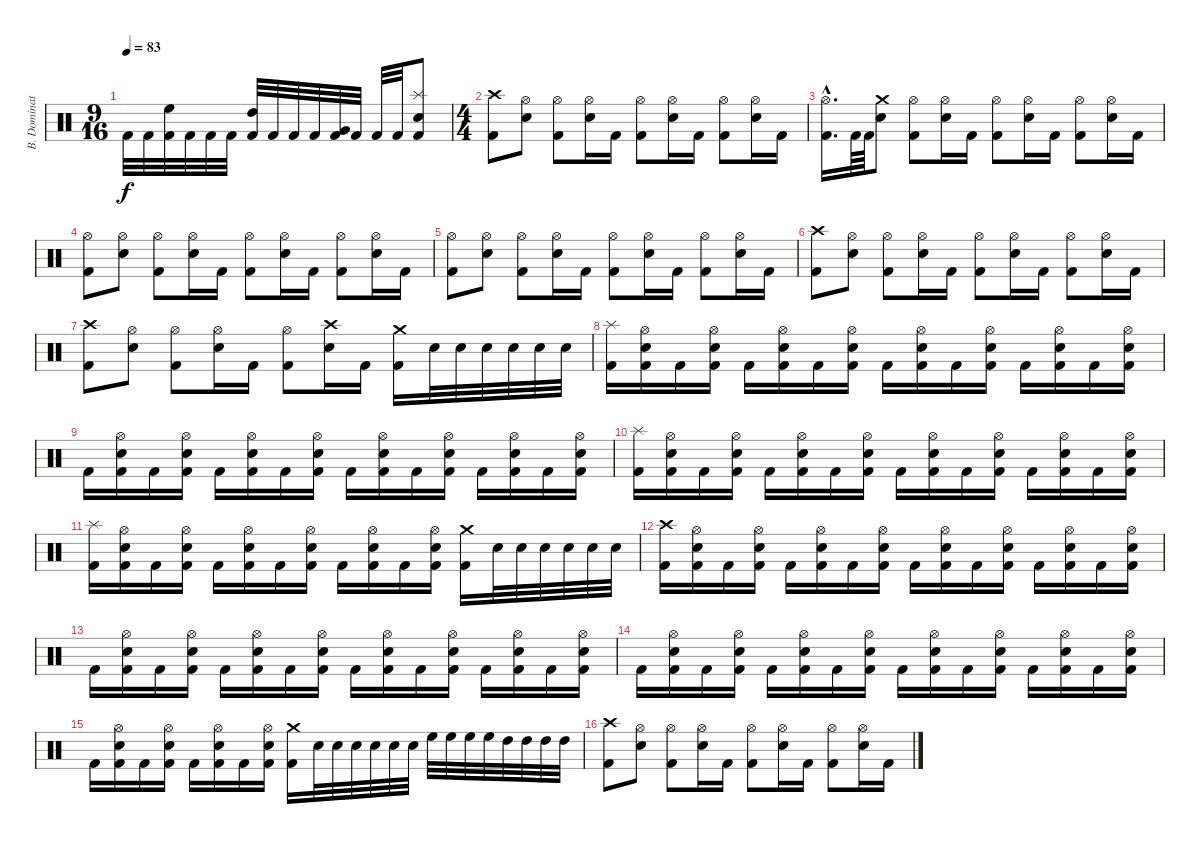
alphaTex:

\track ("B. Dominator" "B. Dominat") {instrument percussion}
\staff {score}
\articulation defaults
\ts (9 16)
\tempo 83
\clef neutral
\ks c "Kick (hit) 2".32{dy f} "Kick (hit) 2".32
("High Floor Tom (hit)" "Kick (hit) 2").32 "Kick (hit) 2".32 "Kick (hit) 2".32 "Kick (hit) 2".32 ("High Tom (hit)" "Kick (hit) 2").32 "Kick (hit) 2".32 "Kick (hit) 2".32 "Kick (hit) 2".32 ("Very Low Tom (hit)" "Kick (hit) 2").32 "Kick (hit) 2".32 "Kick (hit) 2".32 "Kick (hit) 2".32 ("Splash (hit)" "Electric Snare (hit)" "Kick (hit) 2").8 |
\ts (4 4)
("Crash high (hit)" "Kick (hit) 2").8 ("Hi-Hat (open)" "Electric Snare (hit)").8 ("Hi-Hat (open)" "Kick (hit) 2").8 ("Hi-Hat (open)" "Electric Snare (hit)").16 "Kick (hit) 2".16 ("Hi-Hat (open)" "Kick (hit) 2").8 ("Hi-Hat (open)" "Electric Snare (hit)").16 "Kick (hit) 2".16 ("Hi-Hat (open)" "Kick (hit) 2").8 ("Hi-Hat (open)" "Electric Snare (hit)").16 "Kick (hit) 2".16 |
("Hi-Hat (open)"{hac} "Kick (hit) 2"{hac}).16{d} "Kick (hit) 2".64 "Kick (hit) 2".64 ("Crash medium (hit)" "Electric Snare (hit)").8 ("Hi-Hat (open)" "Kick (hit) 2").8 ("Hi-Hat (open)" "Electric Snare (hit)").16 "Kick (hit) 2".16 ("Hi-Hat (open)" "Kick (hit) 2").8 ("Hi-Hat (open)" "Electric Snare (hit)").16 "Kick (hit) 2".16 ("Hi-Hat (open)" "Kick (hit) 2").8 ("Hi-Hat (open)" "Electric Snare (hit)").16 "Kick (hit) 2".16 |
("Hi-Hat (open)" "Kick (hit) 2").8 ("Hi-Hat (open)" "Electric Snare (hit)").8 ("Hi-Hat (open)" "Kick (hit) 2").8 ("Hi-Hat (open)" "Electric Snare (hit)").16 "Kick (hit) 2".16 ("Hi-Hat (open)" "Kick (hit) 2").8 ("Hi-Hat (open)" "Electric Snare (hit)").16 "Kick (hit) 2".16 ("Hi-Hat (open)" "Kick (hit) 2").8 ("Hi-Hat (open)" "Electric Snare (hit)").16 "Kick (hit) 2".16 |
("Hi-Hat (open)" "Kick (hit) 2").8 ("Hi-Hat (open)" "Electric Snare (hit)").8 ("Hi-Hat (open)" "Kick (hit) 2").8 ("Hi-Hat (open)" "Electric Snare (hit)").16 "Kick (hit) 2".16 ("Hi-Hat (open)" "Kick (hit) 2").8 ("Hi-Hat (open)" "Electric Snare (hit)").16 "Kick (hit) 2".16 ("Hi-Hat (open)" "Kick (hit) 2").8 ("Hi-Hat (open)" "Electric Snare (hit)").16 "Kick (hit) 2".16 |
("Crash high (hit)" "Kick (hit) 2").8 ("Hi-Hat (open)" "Electric Snare (hit)").8 ("Hi-Hat (open)" "Kick (hit) 2").8 ("Hi-Hat (open)" "Electric Snare (hit)").16 "Kick (hit) 2".16 ("Hi-Hat (open)" "Kick (hit) 2").8 ("Hi-Hat (open)" "Electric Snare (hit)").16 "Kick (hit) 2".16 ("Hi-Hat (open)" "Kick (hit) 2").8 ("Hi-Hat (open)" "Electric Snare (hit)").16 "Kick (hit) 2".16 |
("Crash high (hit)" "Kick (hit) 2").8 ("Hi-Hat (open)" "Electric Snare (hit)").8 ("Hi-Hat (open)" "Kick (hit) 2").8 ("Hi-Hat (open)" "Electric Snare (hit)").16 "Kick (hit) 2".16 ("Hi-Hat (open)" "Kick (hit) 2").8 ("Crash high (hit)" "Electric Snare (hit)").16 "Kick (hit) 2".16 ("Crash medium (hit)" "Kick (hit) 2").16 "Electric Snare (hit)".32 "Electric Snare (hit)".32 "Electric Snare (hit)".32 "Electric Snare (hit)".32 "Electric Snare (hit)".32 "Electric Snare (hit)".32 |
("Splash (hit)" "Kick (hit) 2").16 ("Hi-Hat (open)" "Electric Snare (hit)" "Kick (hit) 2").16 "Kick (hit) 2".16 ("Hi-Hat (open)" "Electric Snare (hit)" "Kick (hit) 2").16 "Kick (hit) 2".16 ("Hi-Hat (open)" "Electric Snare (hit)" "Kick (hit) 2").16 "Kick (hit) 2".16 ("Hi-Hat (open)" "Electric Snare (hit)" "Kick (hit) 2").16 "Kick (hit) 2".16 ("Hi-Hat (open)" "Electric Snare (hit)" "Kick (hit) 2").16 "Kick (hit) 2".16 ("Hi-Hat (open)" "Electric Snare (hit)" "Kick (hit) 2").16 "Kick (hit) 2".16 ("Hi-Hat (open)" "Electric Snare (hit)" "Kick (hit) 2").16 "Kick (hit) 2".16 ("Hi-Hat (open)" "Electric Snare (hit)" "Kick (hit) 2").16 |
"Kick (hit) 2".16 ("Hi-Hat (open)" "Electric Snare (hit)" "Kick (hit) 2").16 "Kick (hit) 2".16 ("Hi-Hat (open)" "Electric Snare (hit)" "Kick (hit) 2").16 "Kick (hit) 2".16 ("Hi-Hat (open)" "Electric Snare (hit)" "Kick (hit) 2").16 "Kick (hit) 2".16 ("Hi-Hat (open)" "Electric Snare (hit)" "Kick (hit) 2").16 "Kick (hit) 2".16 ("Hi-Hat (open)" "Electric Snare (hit)" "Kick (hit) 2").16 "Kick (hit) 2".16 ("Hi-Hat (open)" "Electric Snare (hit)" "Kick (hit) 2").16 "Kick (hit) 2".16 ("Hi-Hat (open)" "Electric Snare (hit)" "Kick (hit) 2").16 "Kick (hit) 2".16 ("Hi-Hat (open)" "Electric Snare (hit)" "Kick (hit) 2").16 |
("Splash (hit)" "Kick (hit) 2").16 ("Hi-Hat (open)" "Electric Snare (hit)" "Kick (hit) 2").16 "Kick (hit) 2".16 ("Hi-Hat (open)" "Electric Snare (hit)" "Kick (hit) 2").16 "Kick (hit) 2".16 ("Hi-Hat (open)" "Electric Snare (hit)" "Kick (hit) 2").16 "Kick (hit) 2".16 ("Hi-Hat (open)" "Electric Snare (hit)" "Kick (hit) 2").16 "Kick (hit) 2".16 ("Hi-Hat (open)" "Electric Snare (hit)" "Kick (hit) 2").16 "Kick (hit) 2".16 ("Hi-Hat (open)" "Electric Snare (hit)" "Kick (hit) 2").16 "Kick (hit) 2".16 ("Hi-Hat (open)" "Electric Snare (hit)" "Kick (hit) 2").16 "Kick (hit) 2".16 ("Hi-Hat (open)" "Electric Snare (hit)" "Kick (hit) 2").16 |
("Splash (hit)" "Kick (hit) 2").16 ("Hi-Hat (open)" "Electric Snare (hit)" "Kick (hit) 2").16 "Kick (hit) 2".16 ("Hi-Hat (open)" "Electric Snare (hit)" "Kick (hit) 2").16 "Kick (hit) 2".16 ("Hi-Hat (open)" "Electric Snare (hit)" "Kick (hit) 2").16 "Kick (hit) 2".16 ("Hi-Hat (open)" "Electric Snare (hit)" "Kick (hit) 2").16 "Kick (hit) 2".16 ("Hi-Hat (open)" "Electric Snare (hit)" "Kick (hit) 2").16 "Kick (hit) 2".16 ("Hi-Hat (open)" "Electric Snare (hit)" "Kick (hit) 2").16 ("Crash medium (hit)" "Kick (hit) 2").16 "Electric Snare (hit)".32 "Electric Snare (hit)".32 "Electric Snare (hit)".32 "Electric Snare (hit)".32 "Electric Snare (hit)".32 "Electric Snare (hit)".32 |
("Crash high (hit)" "Kick (hit) 2").16 ("Hi-Hat (open)" "Electric Snare (hit)" "Kick (hit) 2").16 "Kick (hit) 2".16 ("Hi-Hat (open)" "Electric Snare (hit)" "Kick (hit) 2").16 "Kick (hit) 2".16 ("Hi-Hat (open)" "Electric Snare (hit)" "Kick (hit) 2").16 "Kick (hit) 2".16 ("Hi-Hat (open)" "Electric Snare (hit)" "Kick (hit) 2").16 "Kick (hit) 2".16 ("Hi-Hat (open)" "Electric Snare (hit)" "Kick (hit) 2").16 "Kick (hit) 2".16 ("Hi-Hat (open)" "Electric Snare (hit)" "Kick (hit) 2").16 "Kick (hit) 2".16 ("Hi-Hat (open)" "Electric Snare (hit)" "Kick (hit) 2").16 "Kick (hit) 2".16 ("Hi-Hat (open)" "Electric Snare (hit)" "Kick (hit) 2").16 |
"Kick (hit) 2".16 ("Hi-Hat (open)" "Electric Snare (hit)" "Kick (hit) 2").16 "Kick (hit) 2".16 ("Hi-Hat (open)" "Electric Snare (hit)" "Kick (hit) 2").16 "Kick (hit) 2".16 ("Hi-Hat (open)" "Electric Snare (hit)" "Kick (hit) 2").16 "Kick (hit) 2".16 ("Hi-Hat (open)" "Electric Snare (hit)" "Kick (hit) 2").16 "Kick (hit) 2".16 ("Hi-Hat (open)" "Electric Snare (hit)" "Kick (hit) 2").16 "Kick (hit) 2".16 ("Hi-Hat (open)" "Electric Snare (hit)" "Kick (hit) 2").16 "Kick (hit) 2".16 ("Hi-Hat (open)" "Electric Snare (hit)" "Kick (hit) 2").16 "Kick (hit) 2".16 ("Hi-Hat (open)" "Electric Snare (hit)" "Kick (hit) 2").16 |
"Kick (hit) 2".16 ("Hi-Hat (open)" "Electric Snare (hit)" "Kick (hit) 2").16 "Kick (hit) 2".16 ("Hi-Hat (open)" "Electric Snare (hit)" "Kick (hit) 2").16 "Kick (hit) 2".16 ("Hi-Hat (open)" "Electric Snare (hit)" "Kick (hit) 2").16 "Kick (hit) 2".16 ("Hi-Hat (open)" "Electric Snare (hit)" "Kick (hit) 2").16 "Kick (hit) 2".16 ("Hi-Hat (open)" "Electric Snare (hit)" "Kick (hit) 2").16 "Kick (hit) 2".16 ("Hi-Hat (open)" "Electric Snare (hit)" "Kick (hit) 2").16 "Kick (hit) 2".16 ("Hi-Hat (open)" "Electric Snare (hit)" "Kick (hit) 2").16 "Kick (hit) 2".16 ("Hi-Hat (open)" "Electric Snare (hit)" "Kick (hit) 2").16 |
"Kick (hit) 2".16 ("Hi-Hat (open)" "Electric Snare (hit)" "Kick (hit) 2").16 "Kick (hit) 2".16 ("Hi-Hat (open)" "Electric Snare (hit)" "Kick (hit) 2").16 "Kick (hit) 2".16 ("Hi-Hat (open)" "Electric Snare (hit)" "Kick (hit) 2").16 "Kick (hit) 2".16 ("Hi-Hat (open)" "Electric Snare (hit)" "Kick (hit) 2").16 ("Crash medium (hit)" "Kick (hit) 2").16 "Electric Snare (hit)".32 "Electric Snare (hit)".32 "Electric Snare (hit)".32 "Electric Snare (hit)".32 "Electric Snare (hit)".32 "Electric Snare (hit)".32 "High Floor Tom (hit)".32 "High Floor Tom (hit)".32 "High Floor Tom (hit)".32 "High Floor Tom (hit)".32 "High Tom (hit)".32 "High Tom (hit)".32 "High Tom (hit)".32 "High Tom (hit)".32 |
("Crash high (hit)" "Kick (hit) 2").8 ("Hi-Hat (open)" "Electric Snare (hit)").8 ("Hi-Hat (open)" "Kick (hit) 2").8 ("Hi-Hat (open)" "Electric Snare (hit)").16 "Kick (hit) 2".16 ("Hi-Hat (open)" "Kick (hit) 2").8 ("Hi-Hat (open)" "Electric Snare (hit)").16 "Kick (hit) 2".16 ("Hi-Hat (open)" "Kick (hit) 2").8 ("Hi-Hat (open)" "Electric Snare (hit)").16 "Kick (hit) 2".16
